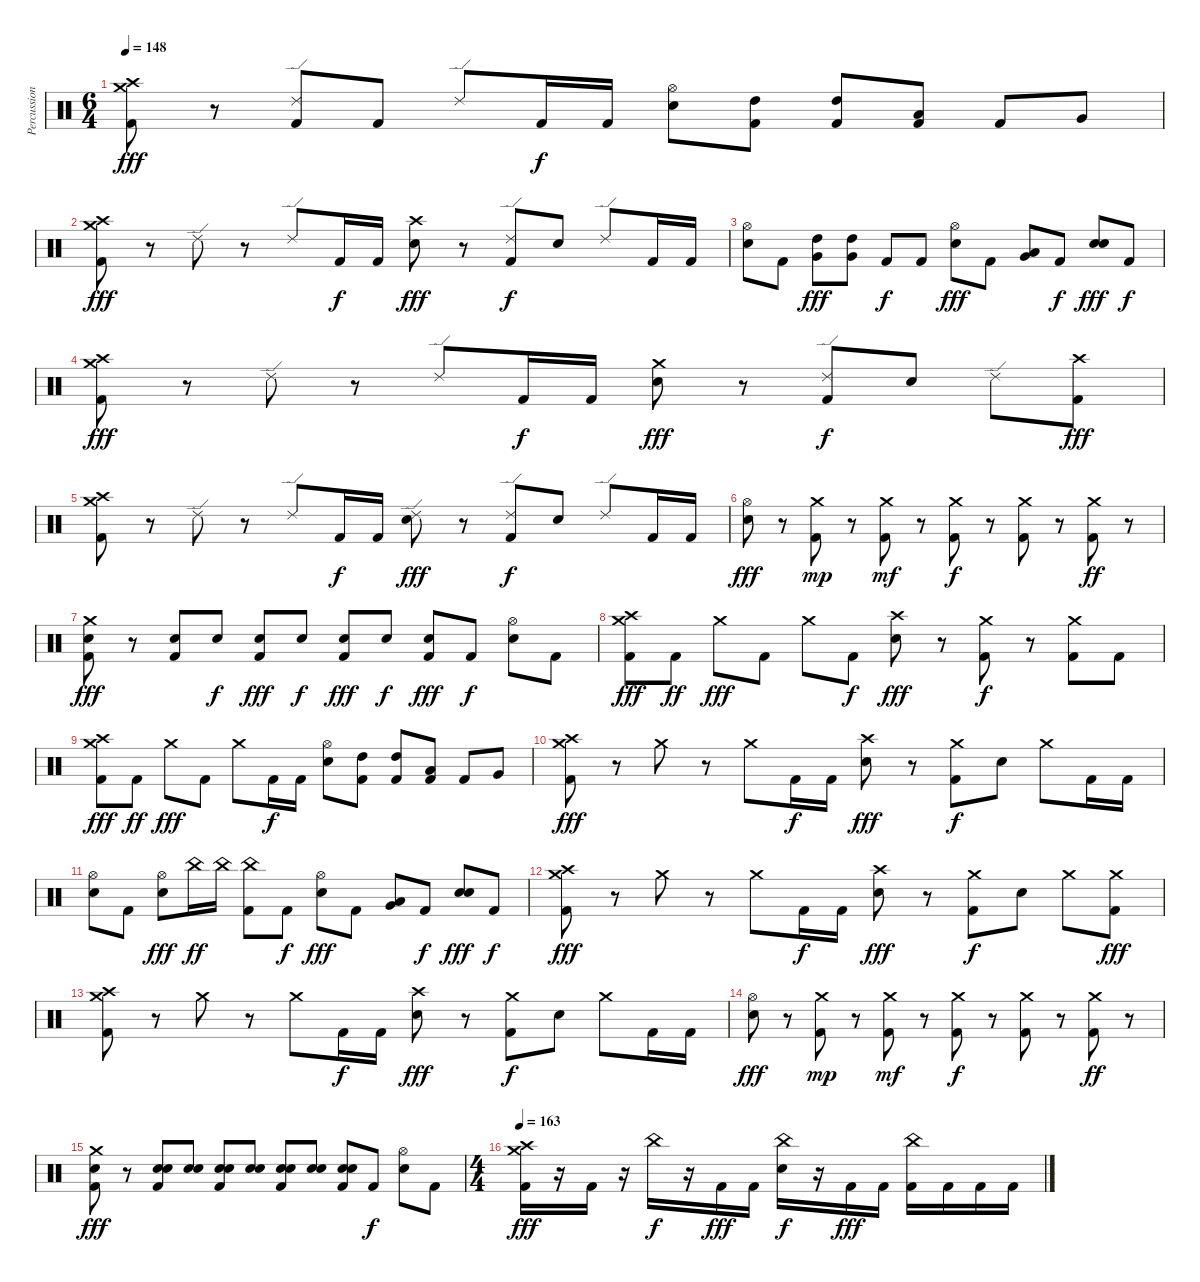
\track ("Percussion" "Percussion") {instrument percussion}
\staff {score}
\articulation defaults
\ts (6 4)
\tempo 148
\clef neutral
\ks c
("Crash high (hit)" "Crash medium (hit)" "Kick (hit) 2").8{dy fff} r.8 ("Ride (edge) 2" "Kick (hit) 2").8 "Kick (hit) 2".8 "Ride (edge) 2".8 "Kick (hit) 2".16{dy f} "Kick (hit) 2".16 ("Hi-Hat (open)" "Electric Snare (hit)").8 ("High Tom (hit)" "Kick (hit) 2").8 ("High Tom (hit)" "Kick (hit) 2").8 ("Low Tom (hit)" "Kick (hit) 2").8 "Kick (hit) 2".8 "Very Low Tom (hit)".8 |
("Crash high (hit)" "Crash medium (hit)" "Kick (hit) 2").8{dy fff} r.8 "Ride (edge) 2".8 r.8 "Ride (edge) 2".8 "Kick (hit) 2".16{dy f} "Kick (hit) 2".16 ("Crash high (hit)" "Electric Snare (hit)").8{dy fff} r.8 ("Ride (edge) 2" "Kick (hit) 2").8{dy f} "Electric Snare (hit)".8 "Ride (edge) 2".8 "Kick (hit) 2".16 "Kick (hit) 2".16 |
("Hi-Hat (open)" "Electric Snare (hit)").8 "Kick (hit) 2".8 ("High Tom (hit)" "Very Low Tom (hit)").8{dy fff} ("High Tom (hit)" "Very Low Tom (hit)").8 "Kick (hit) 2".8{dy f} "Kick (hit) 2".8 ("Hi-Hat (open)" "Electric Snare (hit)").8{dy fff} "Kick (hit) 2".8 ("Very Low Tom (hit)" "Low Floor Tom (hit)").8 "Kick (hit) 2".8{dy f} ("Electric Snare (hit)" "Electric Snare (hit)").8{dy fff} "Kick (hit) 2".8{dy f} |
("Crash high (hit)" "Crash medium (hit)" "Kick (hit) 2").8{dy fff} r.8 "Ride (edge) 2".8 r.8 "Ride (edge) 2".8 "Kick (hit) 2".16{dy f} "Kick (hit) 2".16 ("Crash medium (hit)" "Electric Snare (hit)").8{dy fff} r.8 ("Ride (edge) 2" "Kick (hit) 2").8{dy f} "Electric Snare (hit)".8 "Ride (edge) 2".8 ("Crash high (hit)" "Kick (hit) 2").8{dy fff} |
("Crash high (hit)" "Crash medium (hit)" "Kick (hit) 2").8 r.8 "Ride (edge) 2".8 r.8 "Ride (edge) 2".8 "Kick (hit) 2".16{dy f} "Kick (hit) 2".16 ("Ride (edge) 2" "Electric Snare (hit)").8{dy fff} r.8 ("Ride (edge) 2" "Kick (hit) 2").8{dy f} "Electric Snare (hit)".8 "Ride (edge) 2".8 "Kick (hit) 2".16 "Kick (hit) 2".16 |
("Hi-Hat (open)" "Electric Snare (hit)").8{dy fff} r.8 ("Crash medium (hit)" "Kick (hit) 2").8{dy mp} r.8 ("Crash medium (hit)" "Kick (hit) 2").8{dy mf} r.8 ("Crash medium (hit)" "Kick (hit) 2").8{dy f} r.8 ("Crash medium (hit)" "Kick (hit) 2").8 r.8 ("Crash medium (hit)" "Kick (hit) 2").8{dy ff} r.8 |
("Crash medium (hit)" "Kick (hit) 2" "Electric Snare (hit)").8{dy fff} r.8 ("Kick (hit) 2" "Electric Snare (hit)").8 "Electric Snare (hit)".8{dy f} ("Kick (hit) 2" "Electric Snare (hit)").8{dy fff} "Electric Snare (hit)".8{dy f} ("Kick (hit) 2" "Electric Snare (hit)").8{dy fff} "Electric Snare (hit)".8{dy f} ("Kick (hit) 2" "Electric Snare (hit)").8{dy fff} "Kick (hit) 2".8{dy f} ("Hi-Hat (open)" "Electric Snare (hit)").8 "Kick (hit) 2".8 |
("Crash high (hit)" "Crash medium (hit)" "Kick (hit) 2").8{dy fff} "Kick (hit) 2".8{dy ff} "Crash medium (hit)".8{dy fff} "Kick (hit) 2".8 "Crash medium (hit)".8 "Kick (hit) 2".8{dy f} ("Crash high (hit)" "Electric Snare (hit)").8{dy fff} r.8 ("Crash medium (hit)" "Kick (hit) 2").8{dy f} r.8 ("Crash medium (hit)" "Kick (hit) 2").8 "Kick (hit) 2".8 |
("Crash high (hit)" "Crash medium (hit)" "Kick (hit) 2").8{dy fff} "Kick (hit) 2".8{dy ff} "Crash medium (hit)".8{dy fff} "Kick (hit) 2".8 "Crash medium (hit)".8 "Kick (hit) 2".16{dy f} "Kick (hit) 2".16 ("Hi-Hat (open)" "Electric Snare (hit)").8 ("High Tom (hit)" "Kick (hit) 2").8 ("High Tom (hit)" "Kick (hit) 2").8 ("Low Tom (hit)" "Kick (hit) 2").8 "Kick (hit) 2".8 "Very Low Tom (hit)".8 |
("Crash high (hit)" "Crash medium (hit)" "Kick (hit) 2").8{dy fff} r.8 "Crash medium (hit)".8 r.8 "Crash medium (hit)".8 "Kick (hit) 2".16{dy f} "Kick (hit) 2".16 ("Crash high (hit)" "Electric Snare (hit)").8{dy fff} r.8 ("Crash medium (hit)" "Kick (hit) 2").8{dy f} "Electric Snare (hit)".8 "Crash medium (hit)".8 "Kick (hit) 2".16 "Kick (hit) 2".16 |
("Hi-Hat (open)" "Electric Snare (hit)").8 "Kick (hit) 2".8 ("Hi-Hat (open)" "Electric Snare (hit)").8{dy fff} "China (hit)".16{dy ff} "China (hit)".16 ("China (hit)" "Kick (hit) 2").8 "Kick (hit) 2".8{dy f} ("Hi-Hat (open)" "Electric Snare (hit)").8{dy fff} "Kick (hit) 2".8 ("Very Low Tom (hit)" "Low Floor Tom (hit)").8 "Kick (hit) 2".8{dy f} ("Electric Snare (hit)" "Electric Snare (hit)").8{dy fff} "Kick (hit) 2".8{dy f} |
("Crash high (hit)" "Crash medium (hit)" "Kick (hit) 2").8{dy fff} r.8 "Crash medium (hit)".8 r.8 "Crash medium (hit)".8 "Kick (hit) 2".16{dy f} "Kick (hit) 2".16 ("Crash high (hit)" "Electric Snare (hit)").8{dy fff} r.8 ("Crash medium (hit)" "Kick (hit) 2").8{dy f} "Electric Snare (hit)".8 "Crash medium (hit)".8 ("Crash medium (hit)" "Kick (hit) 2").8{dy fff} |
("Crash high (hit)" "Crash medium (hit)" "Kick (hit) 2").8 r.8 "Crash medium (hit)".8 r.8 "Crash medium (hit)".8 "Kick (hit) 2".16{dy f} "Kick (hit) 2".16 ("Crash high (hit)" "Electric Snare (hit)").8{dy fff} r.8 ("Crash medium (hit)" "Kick (hit) 2").8{dy f} "Electric Snare (hit)".8 "Crash medium (hit)".8 "Kick (hit) 2".16 "Kick (hit) 2".16 |
("Hi-Hat (open)" "Electric Snare (hit)").8{dy fff} r.8 ("Crash medium (hit)" "Kick (hit) 2").8{dy mp} r.8 ("Crash medium (hit)" "Kick (hit) 2").8{dy mf} r.8 ("Crash medium (hit)" "Kick (hit) 2").8{dy f} r.8 ("Crash medium (hit)" "Kick (hit) 2").8 r.8 ("Crash medium (hit)" "Kick (hit) 2").8{dy ff} r.8 |
("Crash medium (hit)" "Kick (hit) 2" "Electric Snare (hit)").8{dy fff} r.8 ("Electric Snare (hit)" "Kick (hit) 2" "Electric Snare (hit)").8 ("Electric Snare (hit)" "Electric Snare (hit)").8 ("Electric Snare (hit)" "Kick (hit) 2" "Electric Snare (hit)").8 ("Electric Snare (hit)" "Electric Snare (hit)").8 ("Electric Snare (hit)" "Kick (hit) 2" "Electric Snare (hit)").8 ("Electric Snare (hit)" "Electric Snare (hit)").8 ("Electric Snare (hit)" "Kick (hit) 2" "Electric Snare (hit)").8 "Kick (hit) 2".8{dy f} ("Hi-Hat (open)" "Electric Snare (hit)").8 "Kick (hit) 2".8 |
\ts (4 4)
\tempo 163
("Crash high (hit)" "Crash medium (hit)" "Kick (hit) 2").16{dy fff} r.16 "Kick (hit) 2".16 r.16 "China (hit)".16{dy f} r.16 "Kick (hit) 2".16{dy fff} "Kick (hit) 2".16 ("China (hit)" "Electric Snare (hit)").16{dy f} r.16 "Kick (hit) 2".16{dy fff} "Kick (hit) 2".16 ("China (hit)" "Kick (hit) 2").16 "Kick (hit) 2".16 "Kick (hit) 2".16 "Kick (hit) 2".16
